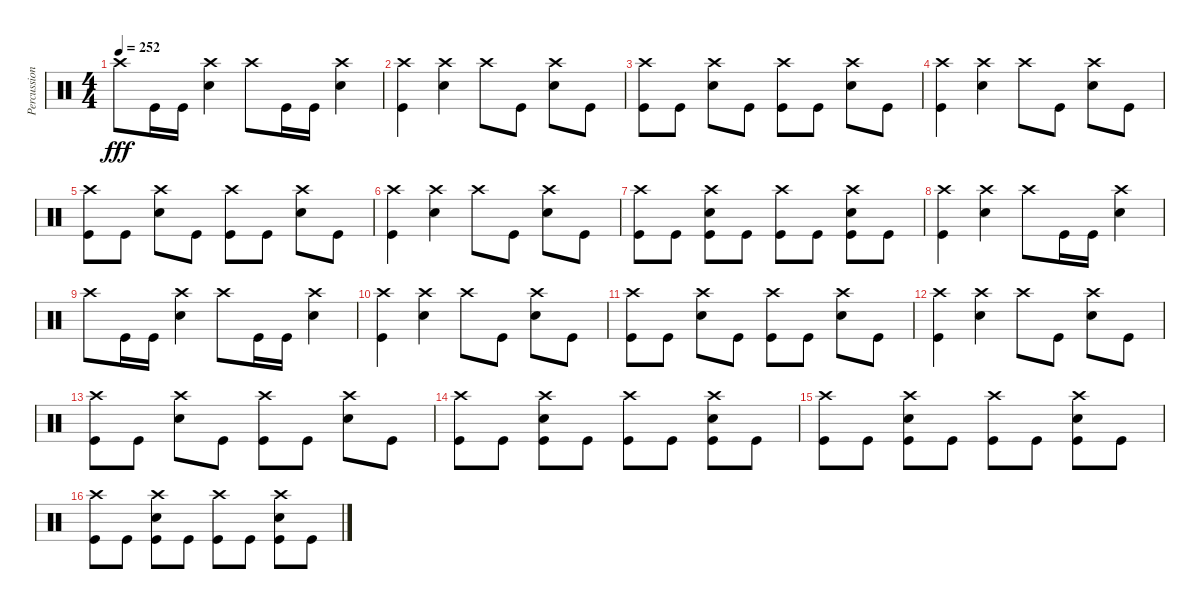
\track ("Percussion" "Percussion") {instrument percussion}
\staff {score}
\articulation defaults
\ts (4 4)
\tempo 252
\clef neutral
\ks c "Crash high (hit)".8{dy fff} "Kick (hit)".16 "Kick (hit)".16
("Crash high (hit)" "Snare (hit) 2").4 "Crash high (hit)".8 "Kick (hit)".16 "Kick (hit)".16 ("Crash high (hit)" "Snare (hit) 2").4 |
("Crash high (hit)" "Kick (hit)").4 ("Crash high (hit)" "Snare (hit) 2").4 "Crash high (hit)".8 "Kick (hit)".8 ("Crash high (hit)" "Snare (hit) 2").8 "Kick (hit)".8 |
("Crash high (hit)" "Kick (hit)").8 "Kick (hit)".8 ("Crash high (hit)" "Snare (hit) 2").8 "Kick (hit)".8 ("Crash high (hit)" "Kick (hit)").8 "Kick (hit)".8 ("Crash high (hit)" "Snare (hit) 2").8 "Kick (hit)".8 |
("Crash high (hit)" "Kick (hit)").4 ("Crash high (hit)" "Snare (hit) 2").4 "Crash high (hit)".8 "Kick (hit)".8 ("Crash high (hit)" "Snare (hit) 2").8 "Kick (hit)".8 |
("Crash high (hit)" "Kick (hit)").8 "Kick (hit)".8 ("Crash high (hit)" "Snare (hit) 2").8 "Kick (hit)".8 ("Crash high (hit)" "Kick (hit)").8 "Kick (hit)".8 ("Crash high (hit)" "Snare (hit) 2").8 "Kick (hit)".8 |
("Crash high (hit)" "Kick (hit)").4 ("Crash high (hit)" "Snare (hit) 2").4 "Crash high (hit)".8 "Kick (hit)".8 ("Crash high (hit)" "Snare (hit) 2").8 "Kick (hit)".8 |
("Crash high (hit)" "Kick (hit)").8 "Kick (hit)".8 ("Crash high (hit)" "Snare (hit) 2" "Kick (hit)").8 "Kick (hit)".8 ("Crash high (hit)" "Kick (hit)").8 "Kick (hit)".8 ("Crash high (hit)" "Snare (hit) 2" "Kick (hit)").8 "Kick (hit)".8 |
("Crash high (hit)" "Kick (hit)").4 ("Crash high (hit)" "Snare (hit) 2").4 "Crash high (hit)".8 "Kick (hit)".16 "Kick (hit)".16 ("Crash high (hit)" "Snare (hit) 2").4 |
"Crash high (hit)".8 "Kick (hit)".16 "Kick (hit)".16 ("Crash high (hit)" "Snare (hit) 2").4 "Crash high (hit)".8 "Kick (hit)".16 "Kick (hit)".16 ("Crash high (hit)" "Snare (hit) 2").4 |
("Crash high (hit)" "Kick (hit)").4 ("Crash high (hit)" "Snare (hit) 2").4 "Crash high (hit)".8 "Kick (hit)".8 ("Crash high (hit)" "Snare (hit) 2").8 "Kick (hit)".8 |
("Crash high (hit)" "Kick (hit)").8 "Kick (hit)".8 ("Crash high (hit)" "Snare (hit) 2").8 "Kick (hit)".8 ("Crash high (hit)" "Kick (hit)").8 "Kick (hit)".8 ("Crash high (hit)" "Snare (hit) 2").8 "Kick (hit)".8 |
("Crash high (hit)" "Kick (hit)").4 ("Crash high (hit)" "Snare (hit) 2").4 "Crash high (hit)".8 "Kick (hit)".8 ("Crash high (hit)" "Snare (hit) 2").8 "Kick (hit)".8 |
("Crash high (hit)" "Kick (hit)").8 "Kick (hit)".8 ("Crash high (hit)" "Snare (hit) 2").8 "Kick (hit)".8 ("Crash high (hit)" "Kick (hit)").8 "Kick (hit)".8 ("Crash high (hit)" "Snare (hit) 2").8 "Kick (hit)".8 |
("Crash high (hit)" "Kick (hit)").8 "Kick (hit)".8 ("Crash high (hit)" "Snare (hit) 2" "Kick (hit)").8 "Kick (hit)".8 ("Crash high (hit)" "Kick (hit)").8 "Kick (hit)".8 ("Crash high (hit)" "Snare (hit) 2" "Kick (hit)").8 "Kick (hit)".8 |
("Crash high (hit)" "Kick (hit)").8 "Kick (hit)".8 ("Crash high (hit)" "Snare (hit) 2" "Kick (hit)").8 "Kick (hit)".8 ("Crash high (hit)" "Kick (hit)").8 "Kick (hit)".8 ("Crash high (hit)" "Snare (hit) 2" "Kick (hit)").8 "Kick (hit)".8 |
("Crash high (hit)" "Kick (hit)").8 "Kick (hit)".8 ("Crash high (hit)" "Snare (hit) 2" "Kick (hit)").8 "Kick (hit)".8 ("Crash high (hit)" "Kick (hit)").8 "Kick (hit)".8 ("Crash high (hit)" "Snare (hit) 2" "Kick (hit)").8 "Kick (hit)".8
